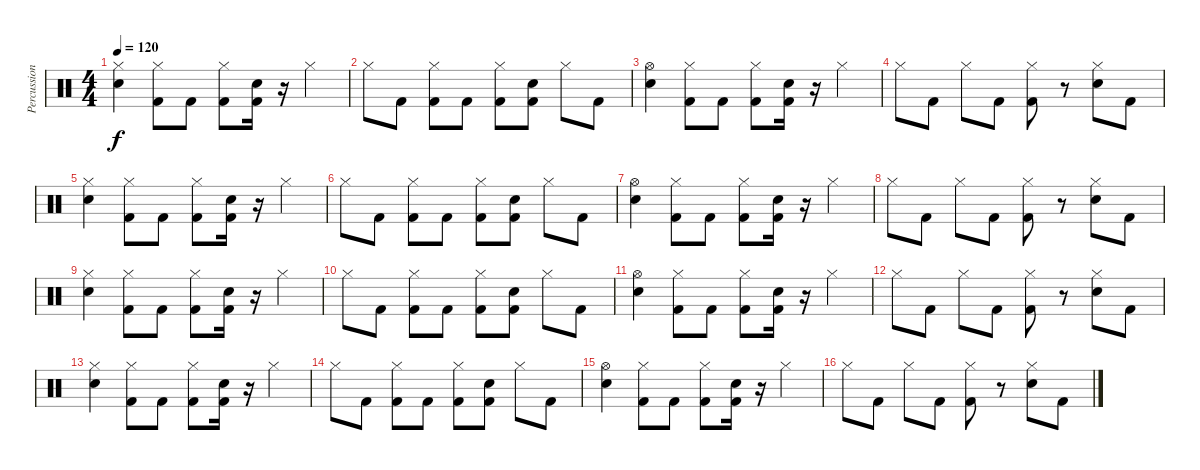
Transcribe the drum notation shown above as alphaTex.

\track ("Percussion" "Percussion") {instrument percussion}
\staff {score}
\articulation defaults
\ts (4 4)
\tempo 120
\clef neutral
\ks c
("Hi-Hat (closed)" "Snare (hit) 2").4{dy f} ("Hi-Hat (closed)" "Kick (hit) 2").8 "Kick (hit) 2".8 ("Hi-Hat (closed)" "Kick (hit) 2").8 ("Snare (hit) 2" "Kick (hit) 2").16 r.16 "Hi-Hat (closed)".4 |
"Hi-Hat (closed)".8 "Kick (hit) 2".8 ("Hi-Hat (closed)" "Kick (hit) 2").8 "Kick (hit) 2".8 ("Hi-Hat (closed)" "Kick (hit) 2").8 ("Snare (hit) 2" "Kick (hit) 2").8 "Hi-Hat (closed)".8 "Kick (hit) 2".8 |
("Hi-Hat (open)" "Snare (hit) 2").4 ("Hi-Hat (closed)" "Kick (hit) 2").8 "Kick (hit) 2".8 ("Hi-Hat (closed)" "Kick (hit) 2").8 ("Snare (hit) 2" "Kick (hit) 2").16 r.16 "Hi-Hat (closed)".4 |
"Hi-Hat (closed)".8 "Kick (hit) 2".8 "Hi-Hat (closed)".8 "Kick (hit) 2".8 ("Hi-Hat (closed)" "Kick (hit) 2").8 r.8 ("Hi-Hat (closed)" "Snare (hit) 2").8 "Kick (hit) 2".8 |
("Hi-Hat (closed)" "Snare (hit) 2").4 ("Hi-Hat (closed)" "Kick (hit) 2").8 "Kick (hit) 2".8 ("Hi-Hat (closed)" "Kick (hit) 2").8 ("Snare (hit) 2" "Kick (hit) 2").16 r.16 "Hi-Hat (closed)".4 |
"Hi-Hat (closed)".8 "Kick (hit) 2".8 ("Hi-Hat (closed)" "Kick (hit) 2").8 "Kick (hit) 2".8 ("Hi-Hat (closed)" "Kick (hit) 2").8 ("Snare (hit) 2" "Kick (hit) 2").8 "Hi-Hat (closed)".8 "Kick (hit) 2".8 |
("Hi-Hat (open)" "Snare (hit) 2").4 ("Hi-Hat (closed)" "Kick (hit) 2").8 "Kick (hit) 2".8 ("Hi-Hat (closed)" "Kick (hit) 2").8 ("Snare (hit) 2" "Kick (hit) 2").16 r.16 "Hi-Hat (closed)".4 |
"Hi-Hat (closed)".8 "Kick (hit) 2".8 "Hi-Hat (closed)".8 "Kick (hit) 2".8 ("Hi-Hat (closed)" "Kick (hit) 2").8 r.8 ("Hi-Hat (closed)" "Snare (hit) 2").8 "Kick (hit) 2".8 |
("Hi-Hat (closed)" "Snare (hit) 2").4 ("Hi-Hat (closed)" "Kick (hit) 2").8 "Kick (hit) 2".8 ("Hi-Hat (closed)" "Kick (hit) 2").8 ("Snare (hit) 2" "Kick (hit) 2").16 r.16 "Hi-Hat (closed)".4 |
"Hi-Hat (closed)".8 "Kick (hit) 2".8 ("Hi-Hat (closed)" "Kick (hit) 2").8 "Kick (hit) 2".8 ("Hi-Hat (closed)" "Kick (hit) 2").8 ("Snare (hit) 2" "Kick (hit) 2").8 "Hi-Hat (closed)".8 "Kick (hit) 2".8 |
("Hi-Hat (open)" "Snare (hit) 2").4 ("Hi-Hat (closed)" "Kick (hit) 2").8 "Kick (hit) 2".8 ("Hi-Hat (closed)" "Kick (hit) 2").8 ("Snare (hit) 2" "Kick (hit) 2").16 r.16 "Hi-Hat (closed)".4 |
"Hi-Hat (closed)".8 "Kick (hit) 2".8 "Hi-Hat (closed)".8 "Kick (hit) 2".8 ("Hi-Hat (closed)" "Kick (hit) 2").8 r.8 ("Hi-Hat (closed)" "Snare (hit) 2").8 "Kick (hit) 2".8 |
("Hi-Hat (closed)" "Snare (hit) 2").4 ("Hi-Hat (closed)" "Kick (hit) 2").8 "Kick (hit) 2".8 ("Hi-Hat (closed)" "Kick (hit) 2").8 ("Snare (hit) 2" "Kick (hit) 2").16 r.16 "Hi-Hat (closed)".4 |
"Hi-Hat (closed)".8 "Kick (hit) 2".8 ("Hi-Hat (closed)" "Kick (hit) 2").8 "Kick (hit) 2".8 ("Hi-Hat (closed)" "Kick (hit) 2").8 ("Snare (hit) 2" "Kick (hit) 2").8 "Hi-Hat (closed)".8 "Kick (hit) 2".8 |
("Hi-Hat (open)" "Snare (hit) 2").4 ("Hi-Hat (closed)" "Kick (hit) 2").8 "Kick (hit) 2".8 ("Hi-Hat (closed)" "Kick (hit) 2").8 ("Snare (hit) 2" "Kick (hit) 2").16 r.16 "Hi-Hat (closed)".4 |
"Hi-Hat (closed)".8 "Kick (hit) 2".8 "Hi-Hat (closed)".8 "Kick (hit) 2".8 ("Hi-Hat (closed)" "Kick (hit) 2").8 r.8 ("Hi-Hat (closed)" "Snare (hit) 2").8 "Kick (hit) 2".8
